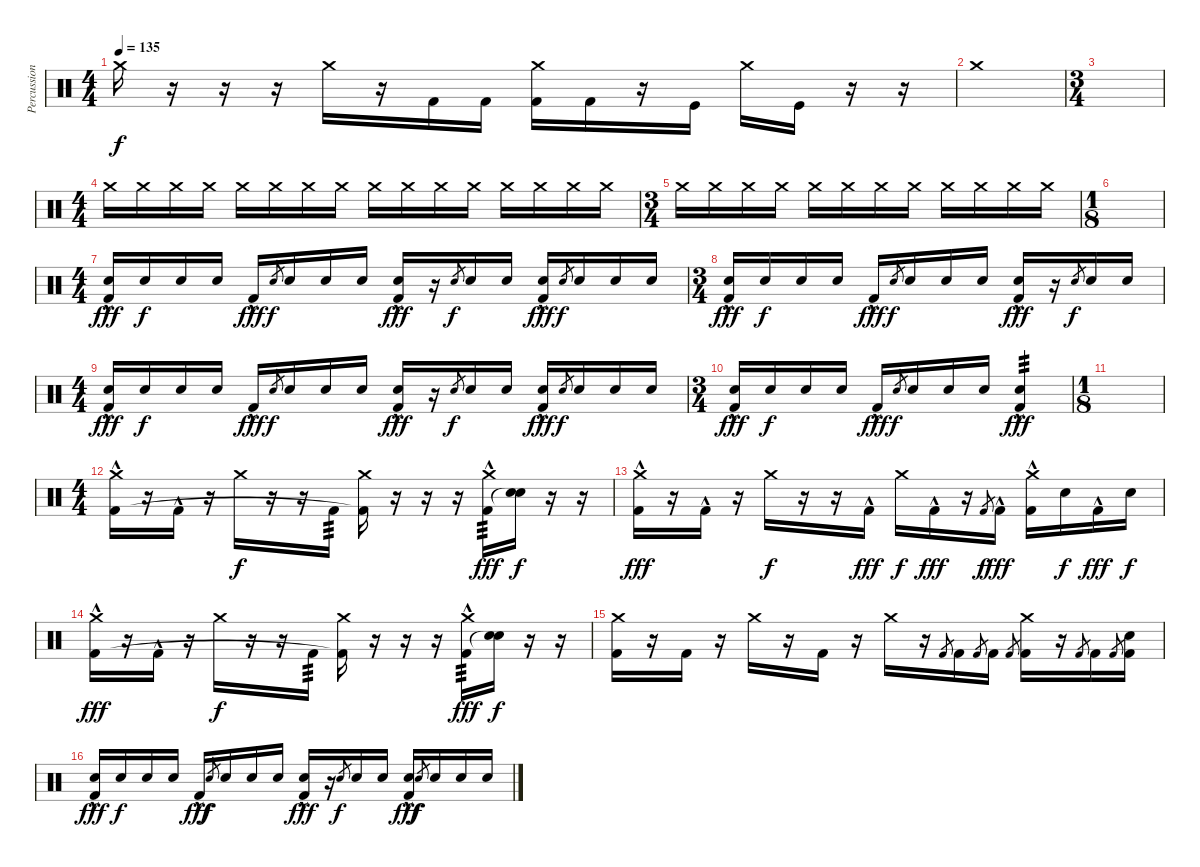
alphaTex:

\track ("Percussion" "Percussion") {instrument percussion}
\staff {score}
\articulation defaults
\ts (4 4)
\tempo 135
\clef neutral
\ks c "Crash medium (hit)".16{dy f}
r.16 r.16 r.16 "Crash medium (hit)".16 r.16 "Kick (hit) 2".16 "Kick (hit) 2".16 ("Crash medium (hit)" "Kick (hit) 2").16 "Kick (hit) 2".16 r.16 "Kick (hit)".16 "Crash medium (hit)".16 "Kick (hit)".16 r.16 r.16 |
"Crash medium (hit)".1 |
\ts (3 4)
|
\ts (4 4)
"Crash medium (hit)".16{volume 0} "Crash medium (hit)".16{volume 11} "Crash medium (hit)".16 "Crash medium (hit)".16 "Crash medium (hit)".16 "Crash medium (hit)".16 "Crash medium (hit)".16 "Crash medium (hit)".16 "Crash medium (hit)".16 "Crash medium (hit)".16 "Crash medium (hit)".16 "Crash medium (hit)".16 "Crash medium (hit)".16 "Crash medium (hit)".16 "Crash medium (hit)".16 "Crash medium (hit)".16 |
\ts (3 4)
"Crash medium (hit)".16 "Crash medium (hit)".16 "Crash medium (hit)".16 "Crash medium (hit)".16 "Crash medium (hit)".16 "Crash medium (hit)".16 "Crash medium (hit)".16 "Crash medium (hit)".16 "Crash medium (hit)".16 "Crash medium (hit)".16 "Crash medium (hit)".16 "Crash medium (hit)".16 |
\ts (1 8)
|
\ts (4 4)
("Electric Snare (hit)" "Kick (hit) 2"{hac}).16{dy fff} "Electric Snare (hit)".16{dy f} "Electric Snare (hit)".16 "Electric Snare (hit)".16 "Kick (hit) 2"{hac}.16{dy fff} "Electric Snare (hit)".8{gr dy f} "Electric Snare (hit)".16 "Electric Snare (hit)".16 "Electric Snare (hit)".16 ("Electric Snare (hit)" "Kick (hit) 2"{hac}).16{dy fff} r.16 "Electric Snare (hit)".8{gr dy f} "Electric Snare (hit)".16 "Electric Snare (hit)".16 ("Electric Snare (hit)" "Kick (hit) 2"{hac}).16{dy fff} "Electric Snare (hit)".8{gr dy f} "Electric Snare (hit)".16 "Electric Snare (hit)".16 "Electric Snare (hit)".16 |
\ts (3 4)
("Electric Snare (hit)" "Kick (hit) 2"{hac}).16{dy fff} "Electric Snare (hit)".16{dy f} "Electric Snare (hit)".16 "Electric Snare (hit)".16 "Kick (hit) 2"{hac}.16{dy fff} "Electric Snare (hit)".8{gr dy f} "Electric Snare (hit)".16 "Electric Snare (hit)".16 "Electric Snare (hit)".16 ("Electric Snare (hit)" "Kick (hit) 2"{hac}).16{dy fff} r.16 "Electric Snare (hit)".8{gr dy f} "Electric Snare (hit)".16 "Electric Snare (hit)".16 |
\ts (4 4)
("Electric Snare (hit)" "Kick (hit) 2"{hac}).16{dy fff} "Electric Snare (hit)".16{dy f} "Electric Snare (hit)".16 "Electric Snare (hit)".16 "Kick (hit) 2"{hac}.16{dy fff} "Electric Snare (hit)".8{gr dy f} "Electric Snare (hit)".16 "Electric Snare (hit)".16 "Electric Snare (hit)".16 ("Electric Snare (hit)" "Kick (hit) 2"{hac}).16{dy fff} r.16 "Electric Snare (hit)".8{gr dy f} "Electric Snare (hit)".16 "Electric Snare (hit)".16 ("Electric Snare (hit)" "Kick (hit) 2"{hac}).16{dy fff} "Electric Snare (hit)".8{gr dy f} "Electric Snare (hit)".16 "Electric Snare (hit)".16 "Electric Snare (hit)".16 |
\ts (3 4)
("Electric Snare (hit)" "Kick (hit) 2"{hac}).16{dy fff} "Electric Snare (hit)".16{dy f} "Electric Snare (hit)".16 "Electric Snare (hit)".16 "Kick (hit) 2"{hac}.16{dy fff} "Electric Snare (hit)".8{gr dy f} "Electric Snare (hit)".16 "Electric Snare (hit)".16 "Electric Snare (hit)".16 ("Electric Snare (hit)" "Kick (hit) 2"{hac}).4{tp 3 dy fff} |
\ts (1 8)
|
\ts (4 4)
("Crash medium (hit)" "Kick (hit) 2"{hac}).16 r.16 "Kick (hit) 2"{hac}.16 r.16 "Crash medium (hit)".16{dy f} r.16 r.16 "Kick (hit) 2".16{tp 3} ("Crash medium (hit)" "Kick (hit) 2"{t}).16 r.16 r.16 r.16 ("Crash medium (hit)" "Kick (hit) 2"{hac}).16{tp 3 dy fff} ("Electric Snare (hit)" "Snare (hit)"{t}).16{dy f} r.16 r.16 |
("Crash medium (hit)" "Kick (hit) 2"{hac}).16{dy fff} r.16 "Kick (hit) 2"{hac}.16 r.16 "Crash medium (hit)".16{dy f} r.16 r.16 "Kick (hit) 2"{hac}.16{dy fff} "Crash medium (hit)".16{dy f} "Kick (hit) 2"{hac}.16{dy fff} r.16 "Kick (hit) 2".8{gr dy f} "Kick (hit) 2"{hac}.16{dy fff} ("Crash medium (hit)" "Kick (hit) 2"{hac}).16 "Snare (hit) 2".16{dy f} "Kick (hit) 2"{hac}.16{dy fff} "Snare (hit) 2".16{dy f} |
("Crash medium (hit)" "Kick (hit) 2"{hac}).16{dy fff} r.16 "Kick (hit) 2"{hac}.16 r.16 "Crash medium (hit)".16{dy f} r.16 r.16 "Kick (hit) 2".16{tp 3} ("Crash medium (hit)" "Kick (hit) 2"{t}).16 r.16 r.16 r.16 ("Crash medium (hit)" "Kick (hit) 2"{hac}).16{tp 3 dy fff} ("Electric Snare (hit)" "Snare (hit)"{t}).16{dy f} r.16 r.16 |
("Crash medium (hit)" "Kick (hit) 2").16 r.16 "Kick (hit) 2".16 r.16 "Crash medium (hit)".16 r.16 "Kick (hit) 2".16 r.16 "Crash medium (hit)".16 r.16 "Kick (hit) 2".8{gr} "Kick (hit) 2".16 "Kick (hit) 2".8{gr} "Kick (hit) 2".16 "Kick (hit) 2".8{gr} ("Crash medium (hit)" "Kick (hit) 2").16 r.16 "Kick (hit) 2".8{gr} "Kick (hit) 2".16 "Kick (hit) 2".8{gr} ("Electric Snare (hit)" "Kick (hit) 2").16 |
("Electric Snare (hit)" "Kick (hit) 2"{hac}).16{dy fff} "Electric Snare (hit)".16{dy f} "Electric Snare (hit)".16 "Electric Snare (hit)".16 "Kick (hit) 2"{hac}.16{dy fff} "Electric Snare (hit)".8{gr dy f} "Electric Snare (hit)".16 "Electric Snare (hit)".16 "Electric Snare (hit)".16 ("Electric Snare (hit)" "Kick (hit) 2"{hac}).16{dy fff} r.16 "Electric Snare (hit)".8{gr dy f} "Electric Snare (hit)".16 "Electric Snare (hit)".16 ("Electric Snare (hit)" "Kick (hit) 2"{hac}).16{dy fff} "Electric Snare (hit)".8{gr dy f} "Electric Snare (hit)".16 "Electric Snare (hit)".16 "Electric Snare (hit)".16
